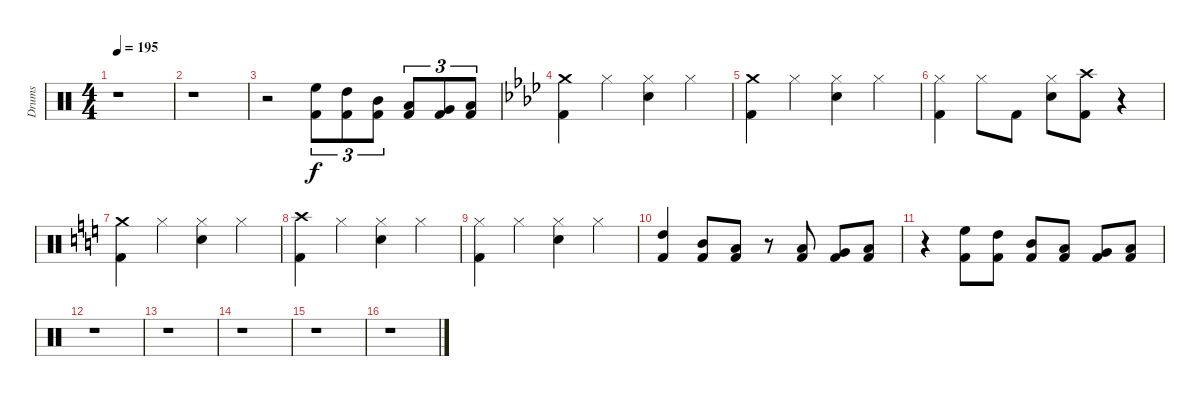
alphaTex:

\track ("Drums" "Drums") {instrument percussion}
\staff {score}
\articulation defaults
\ts (4 4)
\tempo 195
\clef neutral
\ks c
r.1{dy f} |
r.1 |
r.2 ("Kick (hit) 2" "High Floor Tom (hit)").8{tu (3 2)} ("Kick (hit) 2" "High Tom (hit)").8{tu (3 2)} ("Kick (hit) 2" "Mid Tom (hit)").8{tu (3 2)} ("Kick (hit) 2" "Low Tom (hit)").8{tu (3 2)} ("Kick (hit) 2" "Very Low Tom (hit)").8{tu (3 2)} ("Kick (hit) 2" "Low Floor Tom (hit)").8{tu (3 2)} |
\ks fminor
("Kick (hit) 2" "Crash medium (hit)").4 "Hi-Hat (closed)".4 ("Electric Snare (hit)" "Hi-Hat (closed)").4 "Hi-Hat (closed)".4 |
("Kick (hit) 2" "Crash medium (hit)").4 "Hi-Hat (closed)".4 ("Electric Snare (hit)" "Hi-Hat (closed)").4 "Hi-Hat (closed)".4 |
("Kick (hit) 2" "Hi-Hat (closed)").4 "Hi-Hat (closed)".8 "Kick (hit) 2".8 ("Electric Snare (hit)" "Hi-Hat (closed)").8 ("Kick (hit) 2" "Crash high (hit)").8 r.4 |
\ks c
("Kick (hit) 2" "Crash medium (hit)").4 "Hi-Hat (closed)".4 ("Electric Snare (hit)" "Hi-Hat (closed)").4 "Hi-Hat (closed)".4 |
("Kick (hit) 2" "Crash high (hit)").4 "Hi-Hat (closed)".4 ("Electric Snare (hit)" "Hi-Hat (closed)").4 "Hi-Hat (closed)".4 |
("Kick (hit) 2" "Hi-Hat (closed)").4 "Hi-Hat (closed)".4 ("Electric Snare (hit)" "Hi-Hat (closed)").4 "Hi-Hat (closed)".4 |
("Kick (hit) 2" "High Tom (hit)").4 ("Kick (hit) 2" "Mid Tom (hit)").8 ("Kick (hit) 2" "Low Tom (hit)").8 r.8 ("Kick (hit) 2" "Low Tom (hit)").8 ("Kick (hit) 2" "Very Low Tom (hit)").8 ("Kick (hit) 2" "Low Floor Tom (hit)").8 |
r.4 ("Kick (hit) 2" "High Floor Tom (hit)").8 ("Kick (hit) 2" "High Tom (hit)").8 ("Kick (hit) 2" "Mid Tom (hit)").8 ("Kick (hit) 2" "Low Tom (hit)").8 ("Kick (hit) 2" "Very Low Tom (hit)").8 ("Kick (hit) 2" "Low Floor Tom (hit)").8 |
r.1 |
r.1 |
r.1 |
r.1 |
r.1
